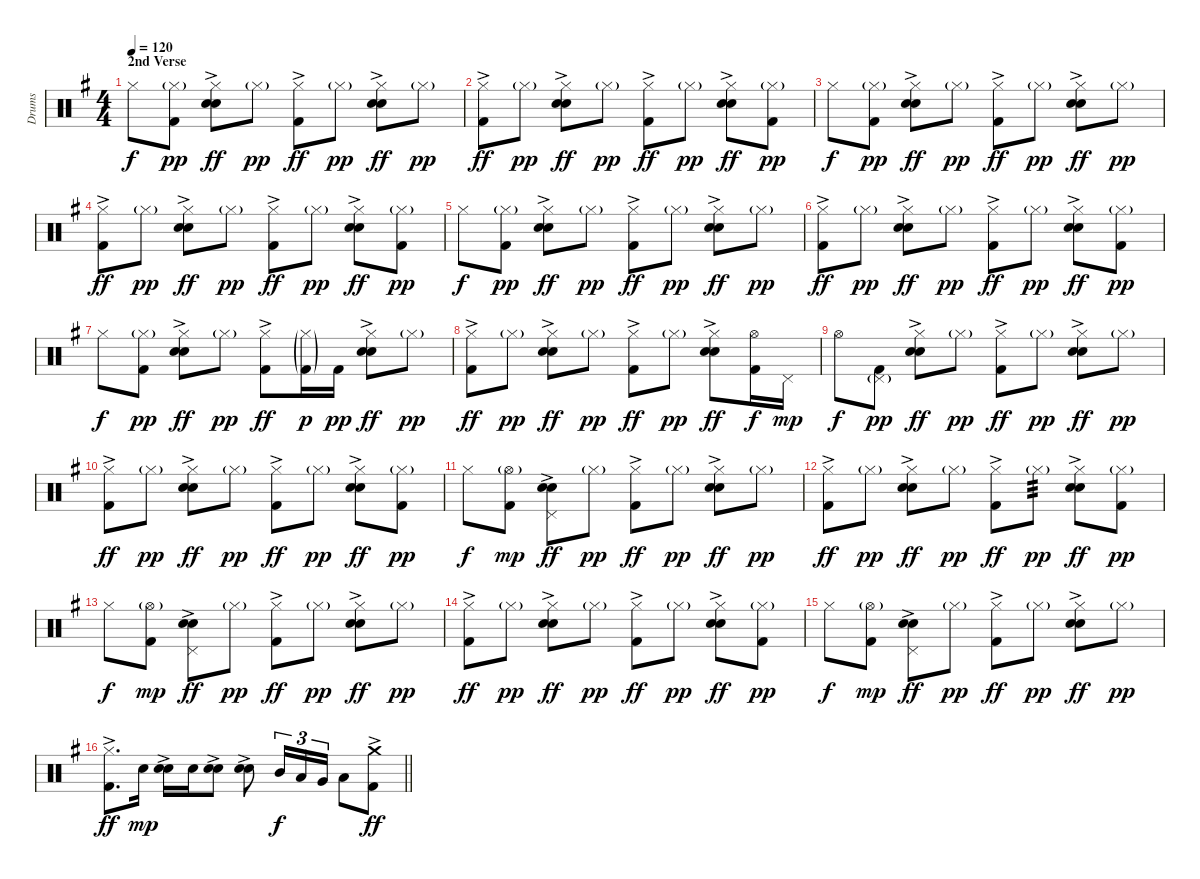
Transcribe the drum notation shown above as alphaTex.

\track ("Drums" "Drums") {instrument percussion}
\staff {score}
\articulation defaults
\ts (4 4)
\section ("" "2nd Verse")
\tempo 120
\clef neutral
\ks g "Hi-Hat (closed)".8{dy f}
("Hi-Hat (closed)"{g} "Kick (hit) 2").8{dy pp} ("Hi-Hat (closed)" "Electric Snare (hit)"{ac} "Snare (hit) 2").8{dy ff} "Hi-Hat (closed)"{g}.8{dy pp} ("Hi-Hat (closed)" "Kick (hit) 2"{ac}).8{dy ff} "Hi-Hat (closed)"{g}.8{dy pp} ("Hi-Hat (closed)" "Electric Snare (hit)"{ac} "Snare (hit) 2").8{dy ff} "Hi-Hat (closed)"{g}.8{dy pp} |
("Hi-Hat (closed)" "Kick (hit) 2"{ac}).8{dy ff} "Hi-Hat (closed)"{g}.8{dy pp} ("Hi-Hat (closed)" "Electric Snare (hit)"{ac} "Snare (hit) 2").8{dy ff} "Hi-Hat (closed)"{g}.8{dy pp} ("Hi-Hat (closed)" "Kick (hit) 2"{ac}).8{dy ff} "Hi-Hat (closed)"{g}.8{dy pp} ("Hi-Hat (closed)" "Electric Snare (hit)"{ac} "Snare (hit) 2").8{dy ff} ("Hi-Hat (closed)"{g} "Kick (hit) 2").8{dy pp} |
"Hi-Hat (closed)".8{dy f} ("Hi-Hat (closed)"{g} "Kick (hit) 2").8{dy pp} ("Hi-Hat (closed)" "Electric Snare (hit)"{ac} "Snare (hit) 2").8{dy ff} "Hi-Hat (closed)"{g}.8{dy pp} ("Hi-Hat (closed)" "Kick (hit) 2"{ac}).8{dy ff} "Hi-Hat (closed)"{g}.8{dy pp} ("Hi-Hat (closed)" "Electric Snare (hit)"{ac} "Snare (hit) 2").8{dy ff} "Hi-Hat (closed)"{g}.8{dy pp} |
("Hi-Hat (closed)" "Kick (hit) 2"{ac}).8{dy ff} "Hi-Hat (closed)"{g}.8{dy pp} ("Hi-Hat (closed)" "Electric Snare (hit)"{ac} "Snare (hit) 2").8{dy ff} "Hi-Hat (closed)"{g}.8{dy pp} ("Hi-Hat (closed)" "Kick (hit) 2"{ac}).8{dy ff} "Hi-Hat (closed)"{g}.8{dy pp} ("Hi-Hat (closed)" "Electric Snare (hit)"{ac} "Snare (hit) 2").8{dy ff} ("Hi-Hat (closed)"{g} "Kick (hit) 2").8{dy pp} |
"Hi-Hat (closed)".8{dy f} ("Hi-Hat (closed)"{g} "Kick (hit) 2").8{dy pp} ("Hi-Hat (closed)" "Electric Snare (hit)"{ac} "Snare (hit) 2").8{dy ff} "Hi-Hat (closed)"{g}.8{dy pp} ("Hi-Hat (closed)" "Kick (hit) 2"{ac}).8{dy ff} "Hi-Hat (closed)"{g}.8{dy pp} ("Hi-Hat (closed)" "Electric Snare (hit)"{ac} "Snare (hit) 2").8{dy ff} "Hi-Hat (closed)"{g}.8{dy pp} |
("Hi-Hat (closed)" "Kick (hit) 2"{ac}).8{dy ff} "Hi-Hat (closed)"{g}.8{dy pp} ("Hi-Hat (closed)" "Electric Snare (hit)"{ac} "Snare (hit) 2").8{dy ff} "Hi-Hat (closed)"{g}.8{dy pp} ("Hi-Hat (closed)" "Kick (hit) 2"{ac}).8{dy ff} "Hi-Hat (closed)"{g}.8{dy pp} ("Hi-Hat (closed)" "Electric Snare (hit)"{ac} "Snare (hit) 2").8{dy ff} ("Hi-Hat (closed)"{g} "Kick (hit) 2").8{dy pp} |
"Hi-Hat (closed)".8{dy f} ("Hi-Hat (closed)"{g} "Kick (hit) 2").8{dy pp} ("Hi-Hat (closed)" "Electric Snare (hit)"{ac} "Snare (hit) 2").8{dy ff} "Hi-Hat (closed)"{g}.8{dy pp} ("Hi-Hat (closed)" "Kick (hit) 2"{ac}).8{dy ff} ("Hi-Hat (closed)"{g} "Kick (hit) 2"{g}).16{dy p} "Kick (hit) 2".16{dy pp} ("Hi-Hat (closed)" "Electric Snare (hit)"{ac} "Snare (hit) 2").8{dy ff} "Hi-Hat (closed)"{g}.8{dy pp} |
("Hi-Hat (closed)" "Kick (hit) 2"{ac}).8{dy ff} "Hi-Hat (closed)"{g}.8{dy pp} ("Hi-Hat (closed)" "Electric Snare (hit)"{ac} "Snare (hit) 2").8{dy ff} "Hi-Hat (closed)"{g}.8{dy pp} ("Hi-Hat (closed)" "Kick (hit) 2"{ac}).8{dy ff} "Hi-Hat (closed)"{g}.8{dy pp} ("Hi-Hat (closed)" "Electric Snare (hit)"{ac} "Snare (hit) 2").8{dy ff} ("Hi-Hat (open)" "Kick (hit) 2").16{dy f} "Pedal Hi-Hat (hit)".16{dy mp} |
"Hi-Hat (open)".8{dy f} ("Pedal Hi-Hat (hit)"{g} "Kick (hit) 2").8{dy pp} ("Hi-Hat (closed)" "Electric Snare (hit)"{ac} "Snare (hit) 2").8{dy ff} "Hi-Hat (closed)"{g}.8{dy pp} ("Hi-Hat (closed)" "Kick (hit) 2"{ac}).8{dy ff} "Hi-Hat (closed)"{g}.8{dy pp} ("Hi-Hat (closed)" "Electric Snare (hit)"{ac} "Snare (hit) 2").8{dy ff} "Hi-Hat (closed)"{g}.8{dy pp} |
("Hi-Hat (closed)" "Kick (hit) 2"{ac}).8{dy ff} "Hi-Hat (closed)"{g}.8{dy pp} ("Hi-Hat (closed)" "Electric Snare (hit)"{ac} "Snare (hit) 2").8{dy ff} "Hi-Hat (closed)"{g}.8{dy pp} ("Hi-Hat (closed)" "Kick (hit) 2"{ac}).8{dy ff} "Hi-Hat (closed)"{g}.8{dy pp} ("Hi-Hat (closed)" "Electric Snare (hit)"{ac} "Snare (hit) 2").8{dy ff} ("Hi-Hat (closed)"{g} "Kick (hit) 2").8{dy pp} |
"Hi-Hat (closed)".8{dy f} ("Hi-Hat (open)"{g} "Kick (hit) 2").8{dy mp} ("Pedal Hi-Hat (hit)" "Electric Snare (hit)"{ac} "Snare (hit) 2").8{dy ff} "Hi-Hat (closed)"{g}.8{dy pp} ("Hi-Hat (closed)" "Kick (hit) 2"{ac}).8{dy ff} "Hi-Hat (closed)"{g}.8{dy pp} ("Hi-Hat (closed)" "Electric Snare (hit)"{ac} "Snare (hit) 2").8{dy ff} "Hi-Hat (closed)"{g}.8{dy pp} |
("Hi-Hat (closed)" "Kick (hit) 2"{ac}).8{dy ff} "Hi-Hat (closed)"{g}.8{dy pp} ("Hi-Hat (closed)" "Electric Snare (hit)"{ac} "Snare (hit) 2").8{dy ff} "Hi-Hat (closed)"{g}.8{dy pp} ("Hi-Hat (closed)" "Kick (hit) 2"{ac}).8{dy ff} "Hi-Hat (closed)"{g}.8{tp 3 dy pp} ("Hi-Hat (closed)" "Electric Snare (hit)"{ac} "Snare (hit) 2").8{dy ff} ("Hi-Hat (closed)"{g} "Kick (hit) 2").8{dy pp} |
"Hi-Hat (closed)".8{dy f} ("Hi-Hat (open)"{g} "Kick (hit) 2").8{dy mp} ("Pedal Hi-Hat (hit)" "Electric Snare (hit)"{ac} "Snare (hit) 2").8{dy ff} "Hi-Hat (closed)"{g}.8{dy pp} ("Hi-Hat (closed)" "Kick (hit) 2"{ac}).8{dy ff} "Hi-Hat (closed)"{g}.8{dy pp} ("Hi-Hat (closed)" "Electric Snare (hit)"{ac} "Snare (hit) 2").8{dy ff} "Hi-Hat (closed)"{g}.8{dy pp} |
("Hi-Hat (closed)" "Kick (hit) 2"{ac}).8{dy ff} "Hi-Hat (closed)"{g}.8{dy pp} ("Hi-Hat (closed)" "Electric Snare (hit)"{ac} "Snare (hit) 2").8{dy ff} "Hi-Hat (closed)"{g}.8{dy pp} ("Hi-Hat (closed)" "Kick (hit) 2"{ac}).8{dy ff} "Hi-Hat (closed)"{g}.8{dy pp} ("Hi-Hat (closed)" "Electric Snare (hit)"{ac} "Snare (hit) 2").8{dy ff} ("Hi-Hat (closed)"{g} "Kick (hit) 2").8{dy pp} |
"Hi-Hat (closed)".8{dy f} ("Hi-Hat (open)"{g} "Kick (hit) 2").8{dy mp} ("Pedal Hi-Hat (hit)" "Electric Snare (hit)"{ac} "Snare (hit) 2").8{dy ff} "Hi-Hat (closed)"{g}.8{dy pp} ("Hi-Hat (closed)" "Kick (hit) 2"{ac}).8{dy ff} "Hi-Hat (closed)"{g}.8{dy pp} ("Hi-Hat (closed)" "Electric Snare (hit)"{ac} "Snare (hit) 2").8{dy ff} "Hi-Hat (closed)"{g}.8{dy pp} |
\barLineRight lightlight
("Hi-Hat (closed)" "Kick (hit) 2"{ac}).8{d dy ff} "Snare (hit) 2".16{dy mp} ("Electric Snare (hit)"{ac} "Snare (hit) 2").16 "Snare (hit) 2".16 ("Electric Snare (hit)"{ac} "Snare (hit) 2").8 ("Electric Snare (hit)"{ac} "Snare (hit) 2").8 "Mid Tom (hit)".16{tu (3 2) dy f} "Low Tom (hit)".16{tu (3 2)} "Very Low Tom (hit)".16{tu (3 2)} "Low Floor Tom (hit)".8 ("Crash medium (hit)" "Kick (hit) 2"{ac}).8{dy ff}
